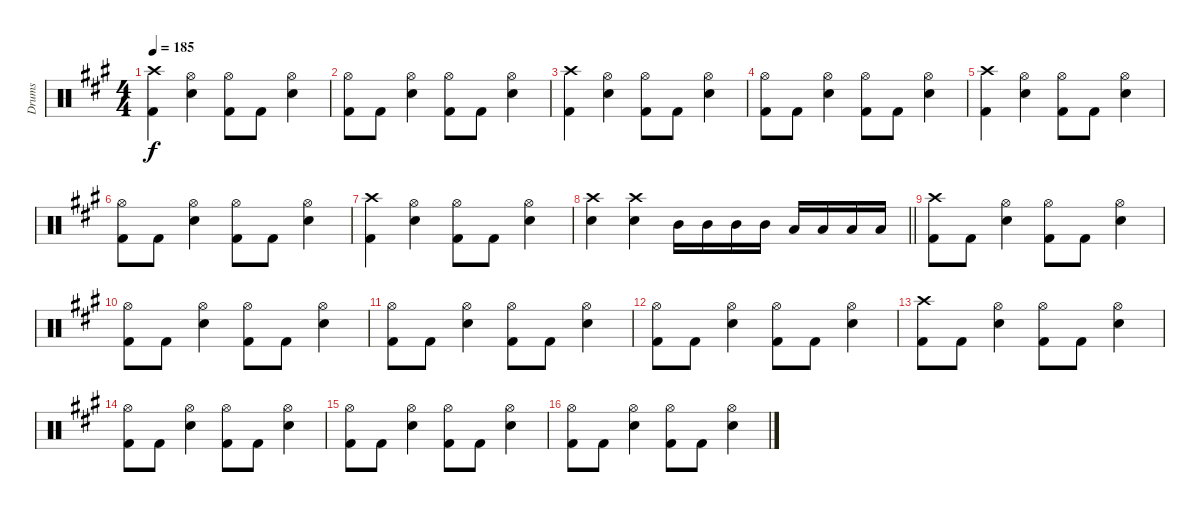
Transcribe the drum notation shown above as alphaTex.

\track ("Drums" "Drums") {instrument percussion}
\staff {score}
\articulation defaults
\ts (4 4)
\tempo 185
\clef neutral
\ks f#minor
("Crash high (hit)" "Kick (hit) 2").4{dy f} ("Hi-Hat (open)" "Electric Snare (hit)").4 ("Hi-Hat (open)" "Kick (hit) 2").8 "Kick (hit) 2".8 ("Hi-Hat (open)" "Electric Snare (hit)").4 |
("Hi-Hat (open)" "Kick (hit) 2").8 "Kick (hit) 2".8 ("Hi-Hat (open)" "Electric Snare (hit)").4 ("Hi-Hat (open)" "Kick (hit) 2").8 "Kick (hit) 2".8 ("Hi-Hat (open)" "Electric Snare (hit)").4 |
("Crash high (hit)" "Kick (hit) 2").4 ("Hi-Hat (open)" "Electric Snare (hit)").4 ("Hi-Hat (open)" "Kick (hit) 2").8 "Kick (hit) 2".8 ("Hi-Hat (open)" "Electric Snare (hit)").4 |
("Hi-Hat (open)" "Kick (hit) 2").8 "Kick (hit) 2".8 ("Hi-Hat (open)" "Electric Snare (hit)").4 ("Hi-Hat (open)" "Kick (hit) 2").8 "Kick (hit) 2".8 ("Hi-Hat (open)" "Electric Snare (hit)").4 |
("Crash high (hit)" "Kick (hit) 2").4 ("Hi-Hat (open)" "Electric Snare (hit)").4 ("Hi-Hat (open)" "Kick (hit) 2").8 "Kick (hit) 2".8 ("Hi-Hat (open)" "Electric Snare (hit)").4 |
("Hi-Hat (open)" "Kick (hit) 2").8 "Kick (hit) 2".8 ("Hi-Hat (open)" "Electric Snare (hit)").4 ("Hi-Hat (open)" "Kick (hit) 2").8 "Kick (hit) 2".8 ("Hi-Hat (open)" "Electric Snare (hit)").4 |
("Crash high (hit)" "Kick (hit) 2").4 ("Hi-Hat (open)" "Electric Snare (hit)").4 ("Hi-Hat (open)" "Kick (hit) 2").8 "Kick (hit) 2".8 ("Hi-Hat (open)" "Electric Snare (hit)").4 |
\barLineRight lightlight
("Crash high (hit)" "Electric Snare (hit)").4 ("Crash high (hit)" "Electric Snare (hit)").4 "Mid Tom (hit)".16 "Mid Tom (hit)".16 "Mid Tom (hit)".16 "Mid Tom (hit)".16 "Low Tom (hit)".16 "Low Tom (hit)".16 "Low Tom (hit)".16 "Low Tom (hit)".16 |
("Crash high (hit)" "Kick (hit) 2").8 "Kick (hit) 2".8 ("Hi-Hat (open)" "Electric Snare (hit)").4 ("Hi-Hat (open)" "Kick (hit) 2").8 "Kick (hit) 2".8 ("Hi-Hat (open)" "Electric Snare (hit)").4 |
("Hi-Hat (open)" "Kick (hit) 2").8 "Kick (hit) 2".8 ("Hi-Hat (open)" "Electric Snare (hit)").4 ("Hi-Hat (open)" "Kick (hit) 2").8 "Kick (hit) 2".8 ("Hi-Hat (open)" "Electric Snare (hit)").4 |
("Hi-Hat (open)" "Kick (hit) 2").8 "Kick (hit) 2".8 ("Hi-Hat (open)" "Electric Snare (hit)").4 ("Hi-Hat (open)" "Kick (hit) 2").8 "Kick (hit) 2".8 ("Hi-Hat (open)" "Electric Snare (hit)").4 |
("Hi-Hat (open)" "Kick (hit) 2").8 "Kick (hit) 2".8 ("Hi-Hat (open)" "Electric Snare (hit)").4 ("Hi-Hat (open)" "Kick (hit) 2").8 "Kick (hit) 2".8 ("Hi-Hat (open)" "Electric Snare (hit)").4 |
("Crash high (hit)" "Kick (hit) 2").8 "Kick (hit) 2".8 ("Hi-Hat (open)" "Electric Snare (hit)").4 ("Hi-Hat (open)" "Kick (hit) 2").8 "Kick (hit) 2".8 ("Hi-Hat (open)" "Electric Snare (hit)").4 |
("Hi-Hat (open)" "Kick (hit) 2").8 "Kick (hit) 2".8 ("Hi-Hat (open)" "Electric Snare (hit)").4 ("Hi-Hat (open)" "Kick (hit) 2").8 "Kick (hit) 2".8 ("Hi-Hat (open)" "Electric Snare (hit)").4 |
("Hi-Hat (open)" "Kick (hit) 2").8 "Kick (hit) 2".8 ("Hi-Hat (open)" "Electric Snare (hit)").4 ("Hi-Hat (open)" "Kick (hit) 2").8 "Kick (hit) 2".8 ("Hi-Hat (open)" "Electric Snare (hit)").4 |
("Hi-Hat (open)" "Kick (hit) 2").8 "Kick (hit) 2".8 ("Hi-Hat (open)" "Electric Snare (hit)").4 ("Hi-Hat (open)" "Kick (hit) 2").8 "Kick (hit) 2".8 ("Hi-Hat (open)" "Electric Snare (hit)").4
